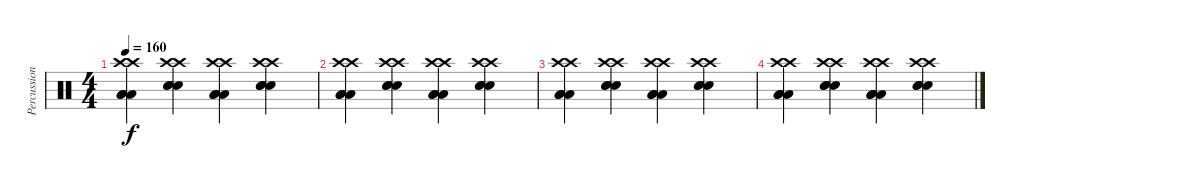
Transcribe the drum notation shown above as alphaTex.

\track ("Percussion" "Percussion") {instrument percussion}
\staff {score}
\articulation defaults
\ts (4 4)
\tempo 160
\clef neutral
\ks c
("Low Tom (hit)" "Low Tom (hit)" "Low Tom (hit)" "Crash high (hit)" "Crash high (hit)").4{dy f} ("Electric Snare (hit)" "Electric Snare (hit)" "Electric Snare (hit)" "Crash high (hit)" "Crash high (hit)").4 ("Low Tom (hit)" "Low Tom (hit)" "Low Tom (hit)" "Crash high (hit)" "Crash high (hit)").4 ("Electric Snare (hit)" "Electric Snare (hit)" "Electric Snare (hit)" "Crash high (hit)" "Crash high (hit)").4 |
("Low Tom (hit)" "Low Tom (hit)" "Low Tom (hit)" "Crash high (hit)" "Crash high (hit)").4 ("Electric Snare (hit)" "Electric Snare (hit)" "Electric Snare (hit)" "Crash high (hit)" "Crash high (hit)").4 ("Low Tom (hit)" "Low Tom (hit)" "Low Tom (hit)" "Crash high (hit)" "Crash high (hit)").4 ("Electric Snare (hit)" "Electric Snare (hit)" "Electric Snare (hit)" "Crash high (hit)" "Crash high (hit)").4 |
("Low Tom (hit)" "Low Tom (hit)" "Low Tom (hit)" "Crash high (hit)" "Crash high (hit)").4 ("Electric Snare (hit)" "Electric Snare (hit)" "Electric Snare (hit)" "Crash high (hit)" "Crash high (hit)").4 ("Low Tom (hit)" "Low Tom (hit)" "Low Tom (hit)" "Crash high (hit)" "Crash high (hit)").4 ("Electric Snare (hit)" "Electric Snare (hit)" "Electric Snare (hit)" "Crash high (hit)" "Crash high (hit)").4 |
("Low Tom (hit)" "Low Tom (hit)" "Low Tom (hit)" "Crash high (hit)" "Crash high (hit)").4 ("Electric Snare (hit)" "Electric Snare (hit)" "Electric Snare (hit)" "Crash high (hit)" "Crash high (hit)").4 ("Low Tom (hit)" "Low Tom (hit)" "Low Tom (hit)" "Crash high (hit)" "Crash high (hit)").4 ("Electric Snare (hit)" "Electric Snare (hit)" "Electric Snare (hit)" "Crash high (hit)" "Crash high (hit)").4
